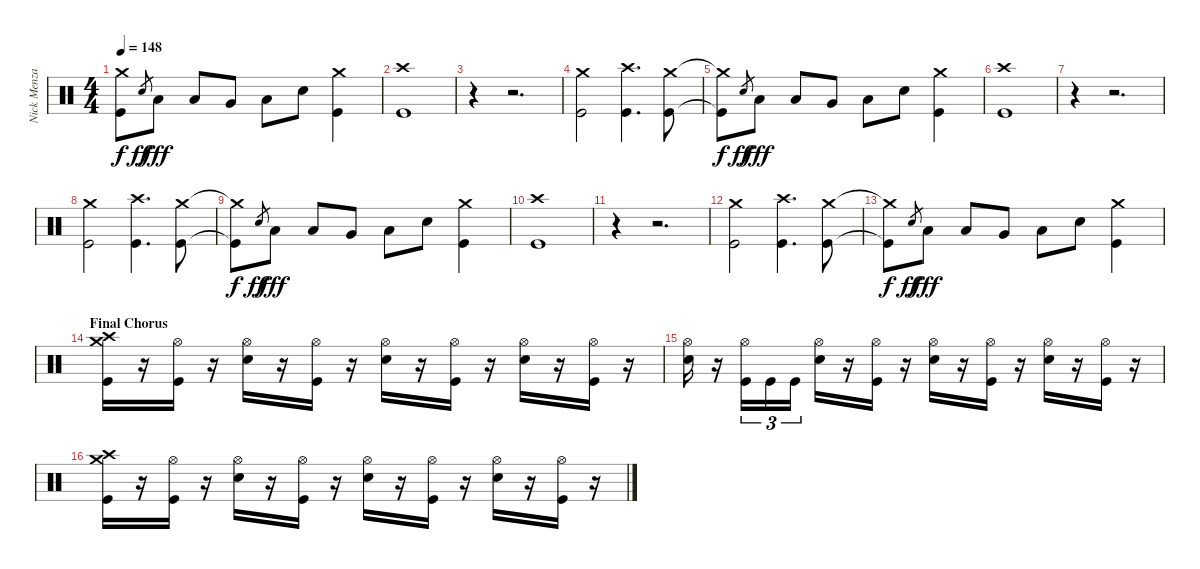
\track ("Nick Menza" "Nick Menza") {instrument percussion}
\staff {score}
\articulation defaults
\ts (4 4)
\tempo 148
\clef neutral
\ks c
("Kick (hit)"{t} "Crash medium (hit)"{t}).8{dy f} "Snare (hit)".8{gr dy ff} "Low Tom (hit)".8{dy fff} "Low Tom (hit)".8 "Very Low Tom (hit)".8 "Low Floor Tom (hit)".8 "Snare (hit) 2".8 ("Kick (hit)" "Crash medium (hit)").4 |
("Kick (hit)" "Crash high (hit)").1 |
r.4 r.2{d} |
("Kick (hit)" "Crash medium (hit)").2 ("Kick (hit)" "Crash high (hit)").4{d} ("Kick (hit)" "Crash medium (hit)").8 |
("Kick (hit)"{t} "Crash medium (hit)"{t}).8{dy f} "Snare (hit)".8{gr dy ff} "Low Tom (hit)".8{dy fff} "Low Tom (hit)".8 "Very Low Tom (hit)".8 "Low Floor Tom (hit)".8 "Snare (hit) 2".8 ("Kick (hit)" "Crash medium (hit)").4 |
("Kick (hit)" "Crash high (hit)").1 |
r.4 r.2{d} |
("Kick (hit)" "Crash medium (hit)").2 ("Kick (hit)" "Crash high (hit)").4{d} ("Kick (hit)" "Crash medium (hit)").8 |
("Kick (hit)"{t} "Crash medium (hit)"{t}).8{dy f} "Snare (hit)".8{gr dy ff} "Low Tom (hit)".8{dy fff} "Low Tom (hit)".8 "Very Low Tom (hit)".8 "Low Floor Tom (hit)".8 "Snare (hit) 2".8 ("Kick (hit)" "Crash medium (hit)").4 |
("Kick (hit)" "Crash high (hit)").1 |
r.4 r.2{d} |
("Kick (hit)" "Crash medium (hit)").2 ("Kick (hit)" "Crash high (hit)").4{d} ("Kick (hit)" "Crash medium (hit)").8 |
("Kick (hit)"{t} "Crash medium (hit)"{t}).8{dy f} "Snare (hit)".8{gr dy ff} "Low Tom (hit)".8{dy fff} "Low Tom (hit)".8 "Very Low Tom (hit)".8 "Low Floor Tom (hit)".8 "Snare (hit) 2".8 ("Kick (hit)" "Crash medium (hit)").4 |
\section ("" "Final Chorus")
("Kick (hit)" "Crash high (hit)" "Crash medium (hit)").16 r.16 ("Kick (hit)" "Hi-Hat (open)").16 r.16 ("Snare (hit) 2" "Hi-Hat (open)").16 r.16 ("Kick (hit)" "Hi-Hat (open)").16 r.16 ("Snare (hit) 2" "Hi-Hat (open)").16 r.16 ("Kick (hit)" "Hi-Hat (open)").16 r.16 ("Snare (hit) 2" "Hi-Hat (open)").16 r.16 ("Kick (hit)" "Hi-Hat (open)").16 r.16 |
("Snare (hit) 2" "Hi-Hat (open)").16 r.16 ("Kick (hit)" "Hi-Hat (open)").16{tu (3 2)} "Kick (hit)".16{tu (3 2)} "Kick (hit)".16{tu (3 2)} ("Snare (hit) 2" "Hi-Hat (open)").16 r.16 ("Kick (hit)" "Hi-Hat (open)").16 r.16 ("Snare (hit) 2" "Hi-Hat (open)").16 r.16 ("Kick (hit)" "Hi-Hat (open)").16 r.16 ("Snare (hit) 2" "Hi-Hat (open)").16 r.16 ("Kick (hit)" "Hi-Hat (open)").16 r.16 |
("Kick (hit)" "Crash high (hit)" "Crash medium (hit)").16 r.16 ("Kick (hit)" "Hi-Hat (open)").16 r.16 ("Snare (hit) 2" "Hi-Hat (open)").16 r.16 ("Kick (hit)" "Hi-Hat (open)").16 r.16 ("Snare (hit) 2" "Hi-Hat (open)").16 r.16 ("Kick (hit)" "Hi-Hat (open)").16 r.16 ("Snare (hit) 2" "Hi-Hat (open)").16 r.16 ("Kick (hit)" "Hi-Hat (open)").16 r.16
